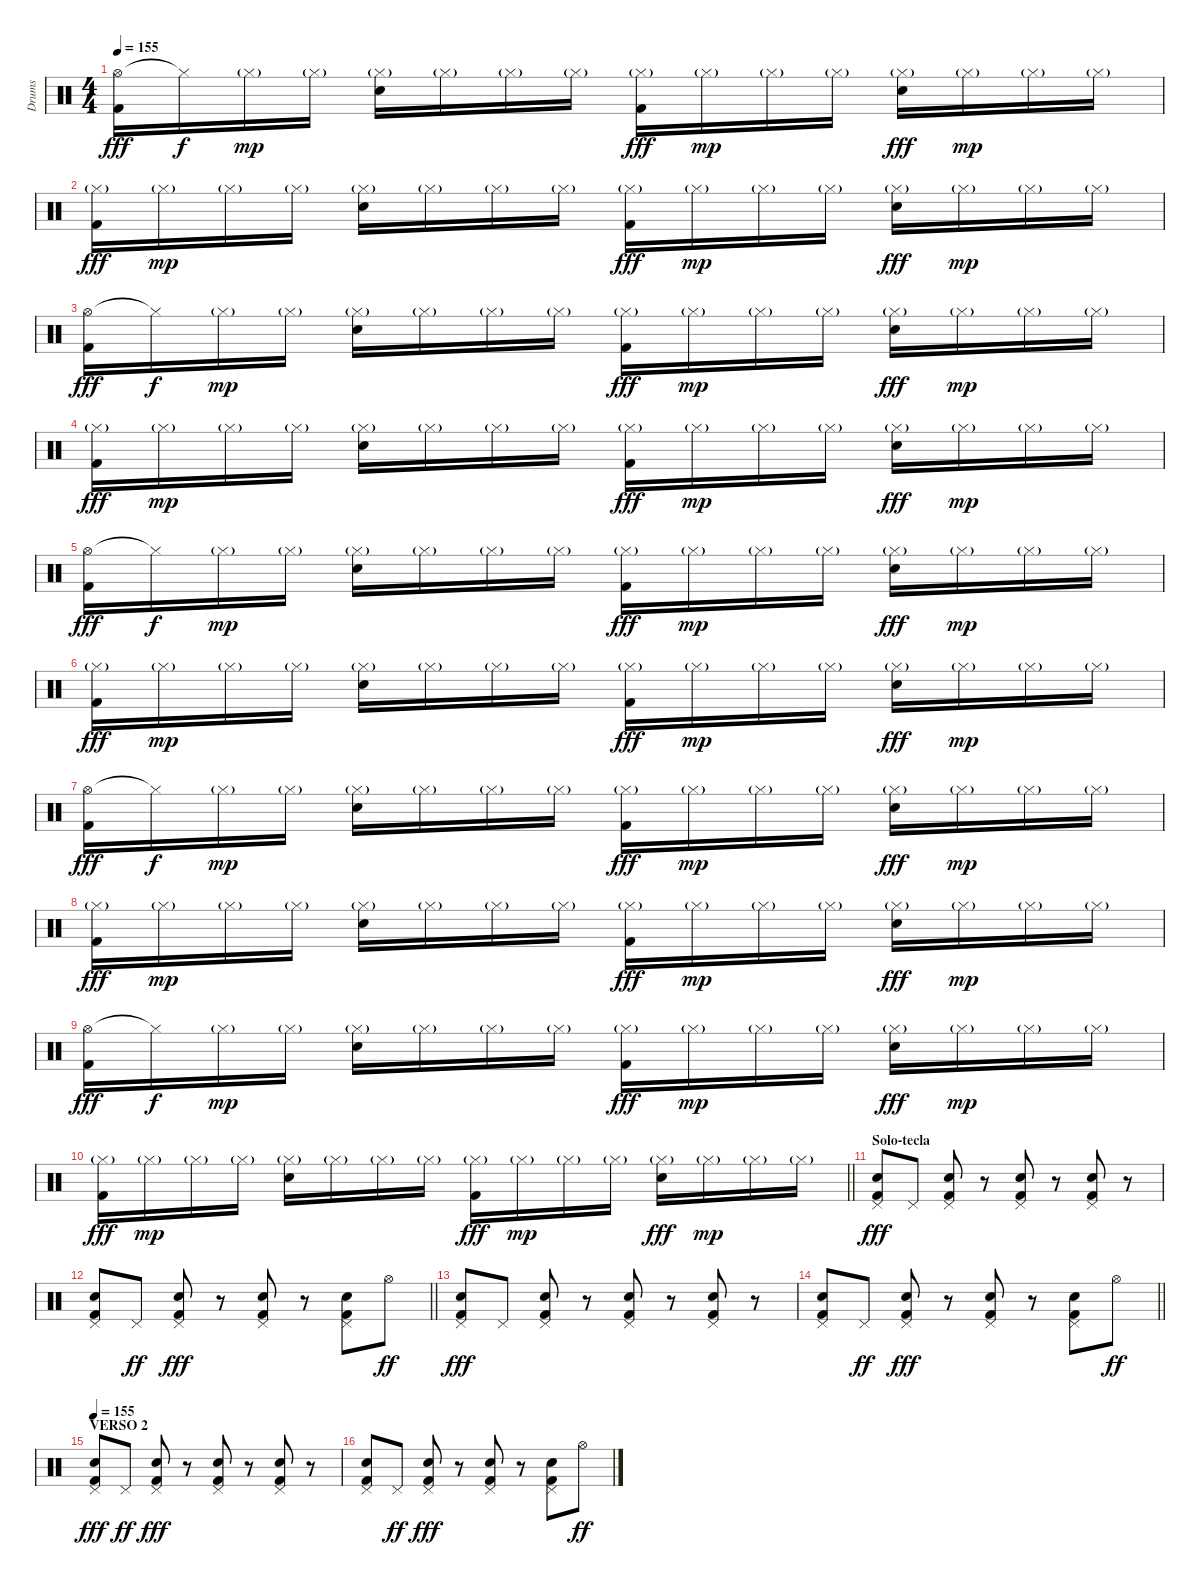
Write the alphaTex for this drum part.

\track ("Drums" "Drums") {instrument percussion}
\staff {score}
\articulation defaults
\ts (4 4)
\tempo 155
\clef neutral
\ks c
("Hi-Hat (open)" "Kick (hit) 2").16{dy fff} "Hi-Hat (closed)"{t}.16{dy f} "Hi-Hat (closed)"{g}.16{dy mp} "Hi-Hat (closed)"{g}.16 ("Hi-Hat (closed)"{g} "Electric Snare (hit)").16 "Hi-Hat (closed)"{g}.16 "Hi-Hat (closed)"{g}.16 "Hi-Hat (closed)"{g}.16 ("Hi-Hat (closed)"{g} "Kick (hit) 2").16{dy fff} "Hi-Hat (closed)"{g}.16{dy mp} "Hi-Hat (closed)"{g}.16 "Hi-Hat (closed)"{g}.16 ("Hi-Hat (closed)"{g} "Electric Snare (hit)").16{dy fff} "Hi-Hat (closed)"{g}.16{dy mp} "Hi-Hat (closed)"{g}.16 "Hi-Hat (closed)"{g}.16 |
("Hi-Hat (closed)"{g} "Kick (hit) 2").16{dy fff} "Hi-Hat (closed)"{g}.16{dy mp} "Hi-Hat (closed)"{g}.16 "Hi-Hat (closed)"{g}.16 ("Hi-Hat (closed)"{g} "Electric Snare (hit)").16 "Hi-Hat (closed)"{g}.16 "Hi-Hat (closed)"{g}.16 "Hi-Hat (closed)"{g}.16 ("Hi-Hat (closed)"{g} "Kick (hit) 2").16{dy fff} "Hi-Hat (closed)"{g}.16{dy mp} "Hi-Hat (closed)"{g}.16 "Hi-Hat (closed)"{g}.16 ("Hi-Hat (closed)"{g} "Electric Snare (hit)").16{dy fff} "Hi-Hat (closed)"{g}.16{dy mp} "Hi-Hat (closed)"{g}.16 "Hi-Hat (closed)"{g}.16 |
("Hi-Hat (open)" "Kick (hit) 2").16{dy fff} "Hi-Hat (closed)"{t}.16{dy f} "Hi-Hat (closed)"{g}.16{dy mp} "Hi-Hat (closed)"{g}.16 ("Hi-Hat (closed)"{g} "Electric Snare (hit)").16 "Hi-Hat (closed)"{g}.16 "Hi-Hat (closed)"{g}.16 "Hi-Hat (closed)"{g}.16 ("Hi-Hat (closed)"{g} "Kick (hit) 2").16{dy fff} "Hi-Hat (closed)"{g}.16{dy mp} "Hi-Hat (closed)"{g}.16 "Hi-Hat (closed)"{g}.16 ("Hi-Hat (closed)"{g} "Electric Snare (hit)").16{dy fff} "Hi-Hat (closed)"{g}.16{dy mp} "Hi-Hat (closed)"{g}.16 "Hi-Hat (closed)"{g}.16 |
("Hi-Hat (closed)"{g} "Kick (hit) 2").16{dy fff} "Hi-Hat (closed)"{g}.16{dy mp} "Hi-Hat (closed)"{g}.16 "Hi-Hat (closed)"{g}.16 ("Hi-Hat (closed)"{g} "Electric Snare (hit)").16 "Hi-Hat (closed)"{g}.16 "Hi-Hat (closed)"{g}.16 "Hi-Hat (closed)"{g}.16 ("Hi-Hat (closed)"{g} "Kick (hit) 2").16{dy fff} "Hi-Hat (closed)"{g}.16{dy mp} "Hi-Hat (closed)"{g}.16 "Hi-Hat (closed)"{g}.16 ("Hi-Hat (closed)"{g} "Electric Snare (hit)").16{dy fff} "Hi-Hat (closed)"{g}.16{dy mp} "Hi-Hat (closed)"{g}.16 "Hi-Hat (closed)"{g}.16 |
("Hi-Hat (open)" "Kick (hit) 2").16{dy fff} "Hi-Hat (closed)"{t}.16{dy f} "Hi-Hat (closed)"{g}.16{dy mp} "Hi-Hat (closed)"{g}.16 ("Hi-Hat (closed)"{g} "Electric Snare (hit)").16 "Hi-Hat (closed)"{g}.16 "Hi-Hat (closed)"{g}.16 "Hi-Hat (closed)"{g}.16 ("Hi-Hat (closed)"{g} "Kick (hit) 2").16{dy fff} "Hi-Hat (closed)"{g}.16{dy mp} "Hi-Hat (closed)"{g}.16 "Hi-Hat (closed)"{g}.16 ("Hi-Hat (closed)"{g} "Electric Snare (hit)").16{dy fff} "Hi-Hat (closed)"{g}.16{dy mp} "Hi-Hat (closed)"{g}.16 "Hi-Hat (closed)"{g}.16 |
("Hi-Hat (closed)"{g} "Kick (hit) 2").16{dy fff} "Hi-Hat (closed)"{g}.16{dy mp} "Hi-Hat (closed)"{g}.16 "Hi-Hat (closed)"{g}.16 ("Hi-Hat (closed)"{g} "Electric Snare (hit)").16 "Hi-Hat (closed)"{g}.16 "Hi-Hat (closed)"{g}.16 "Hi-Hat (closed)"{g}.16 ("Hi-Hat (closed)"{g} "Kick (hit) 2").16{dy fff} "Hi-Hat (closed)"{g}.16{dy mp} "Hi-Hat (closed)"{g}.16 "Hi-Hat (closed)"{g}.16 ("Hi-Hat (closed)"{g} "Electric Snare (hit)").16{dy fff} "Hi-Hat (closed)"{g}.16{dy mp} "Hi-Hat (closed)"{g}.16 "Hi-Hat (closed)"{g}.16 |
("Hi-Hat (open)" "Kick (hit) 2").16{dy fff} "Hi-Hat (closed)"{t}.16{dy f} "Hi-Hat (closed)"{g}.16{dy mp} "Hi-Hat (closed)"{g}.16 ("Hi-Hat (closed)"{g} "Electric Snare (hit)").16 "Hi-Hat (closed)"{g}.16 "Hi-Hat (closed)"{g}.16 "Hi-Hat (closed)"{g}.16 ("Hi-Hat (closed)"{g} "Kick (hit) 2").16{dy fff} "Hi-Hat (closed)"{g}.16{dy mp} "Hi-Hat (closed)"{g}.16 "Hi-Hat (closed)"{g}.16 ("Hi-Hat (closed)"{g} "Electric Snare (hit)").16{dy fff} "Hi-Hat (closed)"{g}.16{dy mp} "Hi-Hat (closed)"{g}.16 "Hi-Hat (closed)"{g}.16 |
("Hi-Hat (closed)"{g} "Kick (hit) 2").16{dy fff} "Hi-Hat (closed)"{g}.16{dy mp} "Hi-Hat (closed)"{g}.16 "Hi-Hat (closed)"{g}.16 ("Hi-Hat (closed)"{g} "Electric Snare (hit)").16 "Hi-Hat (closed)"{g}.16 "Hi-Hat (closed)"{g}.16 "Hi-Hat (closed)"{g}.16 ("Hi-Hat (closed)"{g} "Kick (hit) 2").16{dy fff} "Hi-Hat (closed)"{g}.16{dy mp} "Hi-Hat (closed)"{g}.16 "Hi-Hat (closed)"{g}.16 ("Hi-Hat (closed)"{g} "Electric Snare (hit)").16{dy fff} "Hi-Hat (closed)"{g}.16{dy mp} "Hi-Hat (closed)"{g}.16 "Hi-Hat (closed)"{g}.16 |
("Hi-Hat (open)" "Kick (hit) 2").16{dy fff} "Hi-Hat (closed)"{t}.16{dy f} "Hi-Hat (closed)"{g}.16{dy mp} "Hi-Hat (closed)"{g}.16 ("Hi-Hat (closed)"{g} "Electric Snare (hit)").16 "Hi-Hat (closed)"{g}.16 "Hi-Hat (closed)"{g}.16 "Hi-Hat (closed)"{g}.16 ("Hi-Hat (closed)"{g} "Kick (hit) 2").16{dy fff} "Hi-Hat (closed)"{g}.16{dy mp} "Hi-Hat (closed)"{g}.16 "Hi-Hat (closed)"{g}.16 ("Hi-Hat (closed)"{g} "Electric Snare (hit)").16{dy fff} "Hi-Hat (closed)"{g}.16{dy mp} "Hi-Hat (closed)"{g}.16 "Hi-Hat (closed)"{g}.16 |
\barLineRight lightlight
("Hi-Hat (closed)"{g} "Kick (hit) 2").16{dy fff} "Hi-Hat (closed)"{g}.16{dy mp} "Hi-Hat (closed)"{g}.16 "Hi-Hat (closed)"{g}.16 ("Hi-Hat (closed)"{g} "Electric Snare (hit)").16 "Hi-Hat (closed)"{g}.16 "Hi-Hat (closed)"{g}.16 "Hi-Hat (closed)"{g}.16 ("Hi-Hat (closed)"{g} "Kick (hit) 2").16{dy fff} "Hi-Hat (closed)"{g}.16{dy mp} "Hi-Hat (closed)"{g}.16 "Hi-Hat (closed)"{g}.16 ("Hi-Hat (closed)"{g} "Electric Snare (hit)").16{dy fff} "Hi-Hat (closed)"{g}.16{dy mp} "Hi-Hat (closed)"{g}.16 "Hi-Hat (closed)"{g}.16 |
\section ("" "Solo-tecla")
("Pedal Hi-Hat (hit)" "Electric Snare (hit)" "Kick (hit) 2").8{dy fff} "Pedal Hi-Hat (hit)".8 ("Pedal Hi-Hat (hit)" "Electric Snare (hit)" "Kick (hit) 2").8 r.8 ("Pedal Hi-Hat (hit)" "Electric Snare (hit)" "Kick (hit) 2").8 r.8 ("Pedal Hi-Hat (hit)" "Electric Snare (hit)" "Kick (hit) 2").8 r.8 |
\barLineRight lightlight
("Pedal Hi-Hat (hit)" "Electric Snare (hit)" "Kick (hit) 2").8 "Pedal Hi-Hat (hit)".8{dy ff} ("Pedal Hi-Hat (hit)" "Electric Snare (hit)" "Kick (hit) 2").8{dy fff} r.8 ("Pedal Hi-Hat (hit)" "Electric Snare (hit)" "Kick (hit) 2").8 r.8 ("Pedal Hi-Hat (hit)" "Electric Snare (hit)" "Kick (hit) 2").8 "Hi-Hat (open)".8{dy ff} |
("Pedal Hi-Hat (hit)" "Electric Snare (hit)" "Kick (hit) 2").8{dy fff} "Pedal Hi-Hat (hit)".8 ("Pedal Hi-Hat (hit)" "Electric Snare (hit)" "Kick (hit) 2").8 r.8 ("Pedal Hi-Hat (hit)" "Electric Snare (hit)" "Kick (hit) 2").8 r.8 ("Pedal Hi-Hat (hit)" "Electric Snare (hit)" "Kick (hit) 2").8 r.8 |
\barLineRight lightlight
("Pedal Hi-Hat (hit)" "Electric Snare (hit)" "Kick (hit) 2").8 "Pedal Hi-Hat (hit)".8{dy ff} ("Pedal Hi-Hat (hit)" "Electric Snare (hit)" "Kick (hit) 2").8{dy fff} r.8 ("Pedal Hi-Hat (hit)" "Electric Snare (hit)" "Kick (hit) 2").8 r.8 ("Pedal Hi-Hat (hit)" "Electric Snare (hit)" "Kick (hit) 2").8 "Hi-Hat (open)".8{dy ff} |
\section ("" "VERSO 2")
\tempo 155
("Pedal Hi-Hat (hit)" "Electric Snare (hit)" "Kick (hit) 2").8{dy fff} "Pedal Hi-Hat (hit)".8{dy ff} ("Pedal Hi-Hat (hit)" "Electric Snare (hit)" "Kick (hit) 2").8{dy fff} r.8 ("Pedal Hi-Hat (hit)" "Electric Snare (hit)" "Kick (hit) 2").8 r.8 ("Pedal Hi-Hat (hit)" "Electric Snare (hit)" "Kick (hit) 2").8 r.8 |
("Pedal Hi-Hat (hit)" "Electric Snare (hit)" "Kick (hit) 2").8 "Pedal Hi-Hat (hit)".8{dy ff} ("Pedal Hi-Hat (hit)" "Electric Snare (hit)" "Kick (hit) 2").8{dy fff} r.8 ("Pedal Hi-Hat (hit)" "Electric Snare (hit)" "Kick (hit) 2").8 r.8 ("Pedal Hi-Hat (hit)" "Electric Snare (hit)" "Kick (hit) 2").8 "Hi-Hat (open)".8{dy ff}
